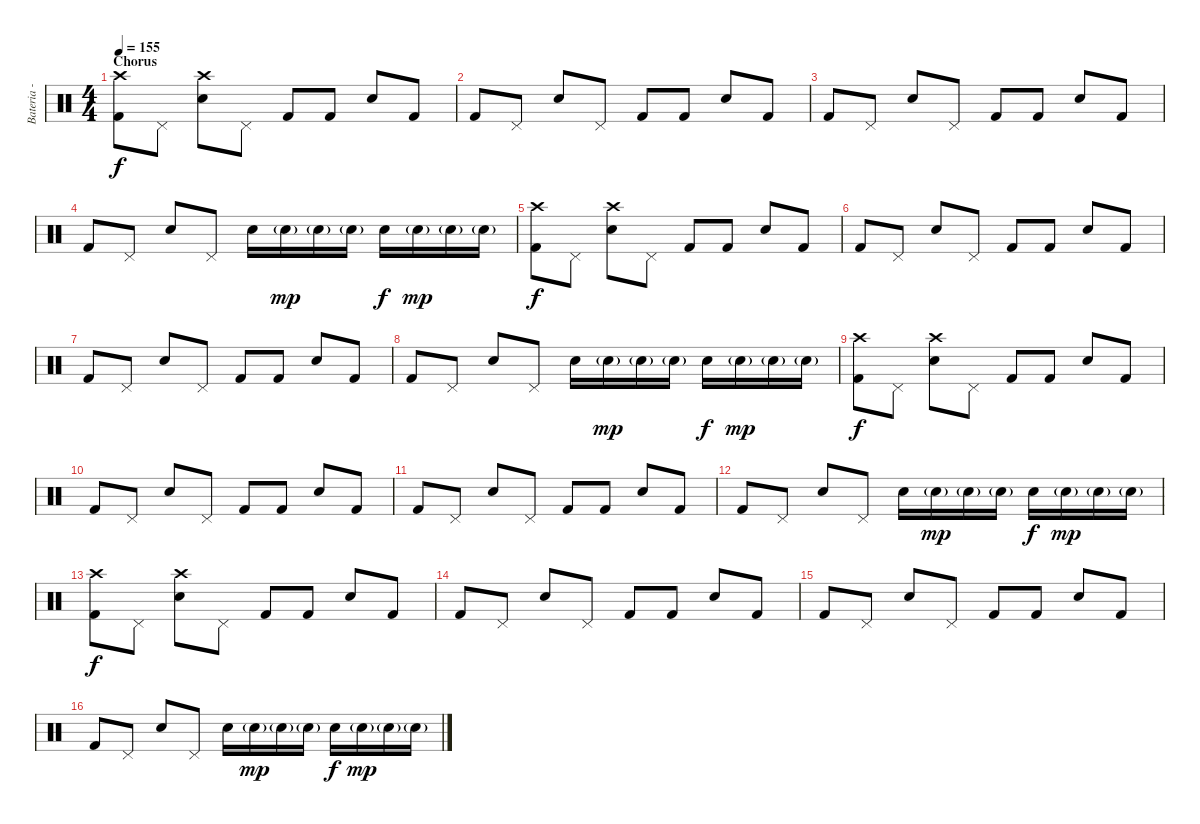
\track ("Bateria - Larzon" "Bateria - ") {instrument percussion}
\staff {score}
\articulation defaults
\ts (4 4)
\section ("" "Chorus")
\tempo 155
\clef neutral
\ks c
("Kick (hit) 2" "Crash high (hit)").8{dy f} "Pedal Hi-Hat (hit)".8 ("Snare (hit) 2" "Crash high (hit)").8 "Pedal Hi-Hat (hit)".8 "Kick (hit) 2".8 "Kick (hit) 2".8 "Snare (hit) 2".8 "Kick (hit) 2".8 |
"Kick (hit) 2".8 "Pedal Hi-Hat (hit)".8 "Snare (hit) 2".8 "Pedal Hi-Hat (hit)".8 "Kick (hit) 2".8 "Kick (hit) 2".8 "Snare (hit) 2".8 "Kick (hit) 2".8 |
"Kick (hit) 2".8 "Pedal Hi-Hat (hit)".8 "Snare (hit) 2".8 "Pedal Hi-Hat (hit)".8 "Kick (hit) 2".8 "Kick (hit) 2".8 "Snare (hit) 2".8 "Kick (hit) 2".8 |
"Kick (hit) 2".8 "Pedal Hi-Hat (hit)".8 "Snare (hit) 2".8 "Pedal Hi-Hat (hit)".8 "Snare (hit) 2".16 "Snare (hit) 2"{g}.16{dy mp} "Snare (hit) 2"{g}.16 "Snare (hit) 2"{g}.16 "Snare (hit) 2".16{dy f} "Snare (hit) 2"{g}.16{dy mp} "Snare (hit) 2"{g}.16 "Snare (hit) 2"{g}.16 |
("Kick (hit) 2" "Crash high (hit)").8{dy f} "Pedal Hi-Hat (hit)".8 ("Snare (hit) 2" "Crash high (hit)").8 "Pedal Hi-Hat (hit)".8 "Kick (hit) 2".8 "Kick (hit) 2".8 "Snare (hit) 2".8 "Kick (hit) 2".8 |
"Kick (hit) 2".8 "Pedal Hi-Hat (hit)".8 "Snare (hit) 2".8 "Pedal Hi-Hat (hit)".8 "Kick (hit) 2".8 "Kick (hit) 2".8 "Snare (hit) 2".8 "Kick (hit) 2".8 |
"Kick (hit) 2".8 "Pedal Hi-Hat (hit)".8 "Snare (hit) 2".8 "Pedal Hi-Hat (hit)".8 "Kick (hit) 2".8 "Kick (hit) 2".8 "Snare (hit) 2".8 "Kick (hit) 2".8 |
"Kick (hit) 2".8 "Pedal Hi-Hat (hit)".8 "Snare (hit) 2".8 "Pedal Hi-Hat (hit)".8 "Snare (hit) 2".16 "Snare (hit) 2"{g}.16{dy mp} "Snare (hit) 2"{g}.16 "Snare (hit) 2"{g}.16 "Snare (hit) 2".16{dy f} "Snare (hit) 2"{g}.16{dy mp} "Snare (hit) 2"{g}.16 "Snare (hit) 2"{g}.16 |
("Kick (hit) 2" "Crash high (hit)").8{dy f} "Pedal Hi-Hat (hit)".8 ("Snare (hit) 2" "Crash high (hit)").8 "Pedal Hi-Hat (hit)".8 "Kick (hit) 2".8 "Kick (hit) 2".8 "Snare (hit) 2".8 "Kick (hit) 2".8 |
"Kick (hit) 2".8 "Pedal Hi-Hat (hit)".8 "Snare (hit) 2".8 "Pedal Hi-Hat (hit)".8 "Kick (hit) 2".8 "Kick (hit) 2".8 "Snare (hit) 2".8 "Kick (hit) 2".8 |
"Kick (hit) 2".8 "Pedal Hi-Hat (hit)".8 "Snare (hit) 2".8 "Pedal Hi-Hat (hit)".8 "Kick (hit) 2".8 "Kick (hit) 2".8 "Snare (hit) 2".8 "Kick (hit) 2".8 |
"Kick (hit) 2".8 "Pedal Hi-Hat (hit)".8 "Snare (hit) 2".8 "Pedal Hi-Hat (hit)".8 "Snare (hit) 2".16 "Snare (hit) 2"{g}.16{dy mp} "Snare (hit) 2"{g}.16 "Snare (hit) 2"{g}.16 "Snare (hit) 2".16{dy f} "Snare (hit) 2"{g}.16{dy mp} "Snare (hit) 2"{g}.16 "Snare (hit) 2"{g}.16 |
("Kick (hit) 2" "Crash high (hit)").8{dy f} "Pedal Hi-Hat (hit)".8 ("Snare (hit) 2" "Crash high (hit)").8 "Pedal Hi-Hat (hit)".8 "Kick (hit) 2".8 "Kick (hit) 2".8 "Snare (hit) 2".8 "Kick (hit) 2".8 |
"Kick (hit) 2".8 "Pedal Hi-Hat (hit)".8 "Snare (hit) 2".8 "Pedal Hi-Hat (hit)".8 "Kick (hit) 2".8 "Kick (hit) 2".8 "Snare (hit) 2".8 "Kick (hit) 2".8 |
"Kick (hit) 2".8 "Pedal Hi-Hat (hit)".8 "Snare (hit) 2".8 "Pedal Hi-Hat (hit)".8 "Kick (hit) 2".8 "Kick (hit) 2".8 "Snare (hit) 2".8 "Kick (hit) 2".8 |
"Kick (hit) 2".8 "Pedal Hi-Hat (hit)".8 "Snare (hit) 2".8 "Pedal Hi-Hat (hit)".8 "Snare (hit) 2".16 "Snare (hit) 2"{g}.16{dy mp} "Snare (hit) 2"{g}.16 "Snare (hit) 2"{g}.16 "Snare (hit) 2".16{dy f} "Snare (hit) 2"{g}.16{dy mp} "Snare (hit) 2"{g}.16 "Snare (hit) 2"{g}.16
